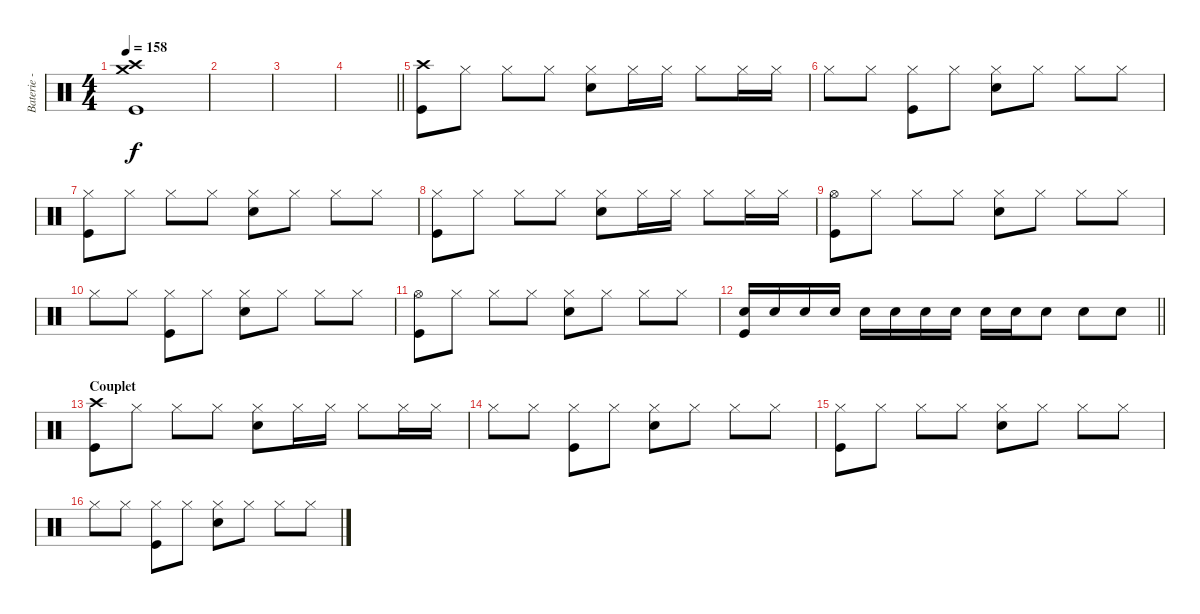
\track ("Baterie - Alex" "Baterie - ") {instrument percussion}
\staff {score}
\articulation defaults
\ts (4 4)
\tempo 158
\clef neutral
\ks c
("Crash high (hit)" "Crash medium (hit)" "Kick (hit)").1{dy f} |
|
|
\barLineRight lightlight
|
\section ("" "")
("Crash high (hit)" "Kick (hit)").8 "Hi-Hat (closed)".8 "Hi-Hat (closed)".8 "Hi-Hat (closed)".8 ("Hi-Hat (closed)" "Electric Snare (hit)").8 "Hi-Hat (closed)".16 "Hi-Hat (closed)".16 "Hi-Hat (closed)".8 "Hi-Hat (closed)".16 "Hi-Hat (closed)".16 |
"Hi-Hat (closed)".8 "Hi-Hat (closed)".8 ("Hi-Hat (closed)" "Kick (hit)").8 "Hi-Hat (closed)".8 ("Hi-Hat (closed)" "Electric Snare (hit)").8 "Hi-Hat (closed)".8 "Hi-Hat (closed)".8 "Hi-Hat (closed)".8 |
("Hi-Hat (closed)" "Kick (hit)").8 "Hi-Hat (closed)".8 "Hi-Hat (closed)".8 "Hi-Hat (closed)".8 ("Hi-Hat (closed)" "Electric Snare (hit)").8 "Hi-Hat (closed)".8 "Hi-Hat (closed)".8 "Hi-Hat (closed)".8 |
("Hi-Hat (closed)" "Kick (hit)").8 "Hi-Hat (closed)".8 "Hi-Hat (closed)".8 "Hi-Hat (closed)".8 ("Hi-Hat (closed)" "Electric Snare (hit)").8 "Hi-Hat (closed)".16 "Hi-Hat (closed)".16 "Hi-Hat (closed)".8 "Hi-Hat (closed)".16 "Hi-Hat (closed)".16 |
("Hi-Hat (open)" "Kick (hit)").8 "Hi-Hat (closed)".8 "Hi-Hat (closed)".8 "Hi-Hat (closed)".8 ("Hi-Hat (closed)" "Electric Snare (hit)").8 "Hi-Hat (closed)".8 "Hi-Hat (closed)".8 "Hi-Hat (closed)".8 |
"Hi-Hat (closed)".8 "Hi-Hat (closed)".8 ("Hi-Hat (closed)" "Kick (hit)").8 "Hi-Hat (closed)".8 ("Hi-Hat (closed)" "Electric Snare (hit)").8 "Hi-Hat (closed)".8 "Hi-Hat (closed)".8 "Hi-Hat (closed)".8 |
("Hi-Hat (open)" "Kick (hit)").8 "Hi-Hat (closed)".8 "Hi-Hat (closed)".8 "Hi-Hat (closed)".8 ("Hi-Hat (closed)" "Electric Snare (hit)").8 "Hi-Hat (closed)".8 "Hi-Hat (closed)".8 "Hi-Hat (closed)".8 |
\barLineRight lightlight
("Electric Snare (hit)" "Kick (hit)").16 "Electric Snare (hit)".16 "Electric Snare (hit)".16 "Electric Snare (hit)".16 "Electric Snare (hit)".16 "Electric Snare (hit)".16 "Electric Snare (hit)".16 "Electric Snare (hit)".16 "Electric Snare (hit)".16 "Electric Snare (hit)".16 "Electric Snare (hit)".8 "Electric Snare (hit)".8 "Electric Snare (hit)".8 |
\section ("" "Couplet")
("Crash high (hit)" "Kick (hit)").8 "Hi-Hat (closed)".8 "Hi-Hat (closed)".8 "Hi-Hat (closed)".8 ("Hi-Hat (closed)" "Electric Snare (hit)").8 "Hi-Hat (closed)".16 "Hi-Hat (closed)".16 "Hi-Hat (closed)".8 "Hi-Hat (closed)".16 "Hi-Hat (closed)".16 |
"Hi-Hat (closed)".8 "Hi-Hat (closed)".8 ("Hi-Hat (closed)" "Kick (hit)").8 "Hi-Hat (closed)".8 ("Hi-Hat (closed)" "Electric Snare (hit)").8 "Hi-Hat (closed)".8 "Hi-Hat (closed)".8 "Hi-Hat (closed)".8 |
("Hi-Hat (closed)" "Kick (hit)").8 "Hi-Hat (closed)".8 "Hi-Hat (closed)".8 "Hi-Hat (closed)".8 ("Hi-Hat (closed)" "Electric Snare (hit)").8 "Hi-Hat (closed)".8 "Hi-Hat (closed)".8 "Hi-Hat (closed)".8 |
"Hi-Hat (closed)".8 "Hi-Hat (closed)".8 ("Hi-Hat (closed)" "Kick (hit)").8 "Hi-Hat (closed)".8 ("Hi-Hat (closed)" "Electric Snare (hit)").8 "Hi-Hat (closed)".8 "Hi-Hat (closed)".8 "Hi-Hat (closed)".8
